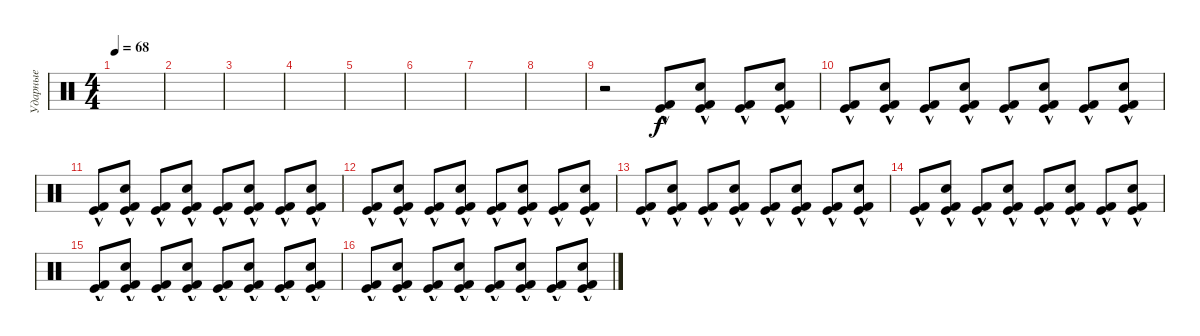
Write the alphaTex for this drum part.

\track ("Ударные" "Ударные") {instrument percussion}
\staff {score}
\articulation defaults
\ts (4 4)
\tempo 68
\clef neutral
\ks c
|
|
|
|
|
|
|
|
r.2 ("Kick (hit)"{hac} "Kick (hit) 2"{hac}).8 ("Kick (hit)"{hac} "Kick (hit) 2"{hac} "Hand Clap (hit)").8 ("Kick (hit)"{hac} "Kick (hit) 2"{hac}).8 ("Kick (hit)"{hac} "Kick (hit) 2"{hac} "Hand Clap (hit)").8 |
("Kick (hit)"{hac} "Kick (hit) 2"{hac}).8 ("Kick (hit)"{hac} "Kick (hit) 2"{hac} "Hand Clap (hit)").8 ("Kick (hit)"{hac} "Kick (hit) 2"{hac}).8 ("Kick (hit)"{hac} "Kick (hit) 2"{hac} "Hand Clap (hit)").8 ("Kick (hit)"{hac} "Kick (hit) 2"{hac}).8 ("Kick (hit)"{hac} "Kick (hit) 2"{hac} "Hand Clap (hit)").8 ("Kick (hit)"{hac} "Kick (hit) 2"{hac}).8 ("Kick (hit)"{hac} "Kick (hit) 2"{hac} "Hand Clap (hit)").8 |
("Kick (hit)"{hac} "Kick (hit) 2"{hac}).8 ("Kick (hit)"{hac} "Kick (hit) 2"{hac} "Hand Clap (hit)").8 ("Kick (hit)"{hac} "Kick (hit) 2"{hac}).8 ("Kick (hit)"{hac} "Kick (hit) 2"{hac} "Hand Clap (hit)").8 ("Kick (hit)"{hac} "Kick (hit) 2"{hac}).8 ("Kick (hit)"{hac} "Kick (hit) 2"{hac} "Hand Clap (hit)").8 ("Kick (hit)"{hac} "Kick (hit) 2"{hac}).8 ("Kick (hit)"{hac} "Kick (hit) 2"{hac} "Hand Clap (hit)").8 |
("Kick (hit)"{hac} "Kick (hit) 2"{hac}).8 ("Kick (hit)"{hac} "Kick (hit) 2"{hac} "Hand Clap (hit)").8 ("Kick (hit)"{hac} "Kick (hit) 2"{hac}).8 ("Kick (hit)"{hac} "Kick (hit) 2"{hac} "Hand Clap (hit)").8 ("Kick (hit)"{hac} "Kick (hit) 2"{hac}).8 ("Kick (hit)"{hac} "Kick (hit) 2"{hac} "Hand Clap (hit)").8 ("Kick (hit)"{hac} "Kick (hit) 2"{hac}).8 ("Kick (hit)"{hac} "Kick (hit) 2"{hac} "Hand Clap (hit)").8 |
("Kick (hit)"{hac} "Kick (hit) 2"{hac}).8 ("Kick (hit)"{hac} "Kick (hit) 2"{hac} "Hand Clap (hit)").8 ("Kick (hit)"{hac} "Kick (hit) 2"{hac}).8 ("Kick (hit)"{hac} "Kick (hit) 2"{hac} "Hand Clap (hit)").8 ("Kick (hit)"{hac} "Kick (hit) 2"{hac}).8 ("Kick (hit)"{hac} "Kick (hit) 2"{hac} "Hand Clap (hit)").8 ("Kick (hit)"{hac} "Kick (hit) 2"{hac}).8 ("Kick (hit)"{hac} "Kick (hit) 2"{hac} "Hand Clap (hit)").8 |
("Kick (hit)"{hac} "Kick (hit) 2"{hac}).8 ("Kick (hit)"{hac} "Kick (hit) 2"{hac} "Hand Clap (hit)").8 ("Kick (hit)"{hac} "Kick (hit) 2"{hac}).8 ("Kick (hit)"{hac} "Kick (hit) 2"{hac} "Hand Clap (hit)").8 ("Kick (hit)"{hac} "Kick (hit) 2"{hac}).8 ("Kick (hit)"{hac} "Kick (hit) 2"{hac} "Hand Clap (hit)").8 ("Kick (hit)"{hac} "Kick (hit) 2"{hac}).8 ("Kick (hit)"{hac} "Kick (hit) 2"{hac} "Hand Clap (hit)").8 |
("Kick (hit)"{hac} "Kick (hit) 2"{hac}).8 ("Kick (hit)"{hac} "Kick (hit) 2"{hac} "Hand Clap (hit)").8 ("Kick (hit)"{hac} "Kick (hit) 2"{hac}).8 ("Kick (hit)"{hac} "Kick (hit) 2"{hac} "Hand Clap (hit)").8 ("Kick (hit)"{hac} "Kick (hit) 2"{hac}).8 ("Kick (hit)"{hac} "Kick (hit) 2"{hac} "Hand Clap (hit)").8 ("Kick (hit)"{hac} "Kick (hit) 2"{hac}).8 ("Kick (hit)"{hac} "Kick (hit) 2"{hac} "Hand Clap (hit)").8 |
("Kick (hit)"{hac} "Kick (hit) 2"{hac}).8 ("Kick (hit)"{hac} "Kick (hit) 2"{hac} "Hand Clap (hit)").8 ("Kick (hit)"{hac} "Kick (hit) 2"{hac}).8 ("Kick (hit)"{hac} "Kick (hit) 2"{hac} "Hand Clap (hit)").8 ("Kick (hit)"{hac} "Kick (hit) 2"{hac}).8 ("Kick (hit)"{hac} "Kick (hit) 2"{hac} "Hand Clap (hit)").8 ("Kick (hit)"{hac} "Kick (hit) 2"{hac}).8 ("Kick (hit)"{hac} "Kick (hit) 2"{hac} "Hand Clap (hit)").8
